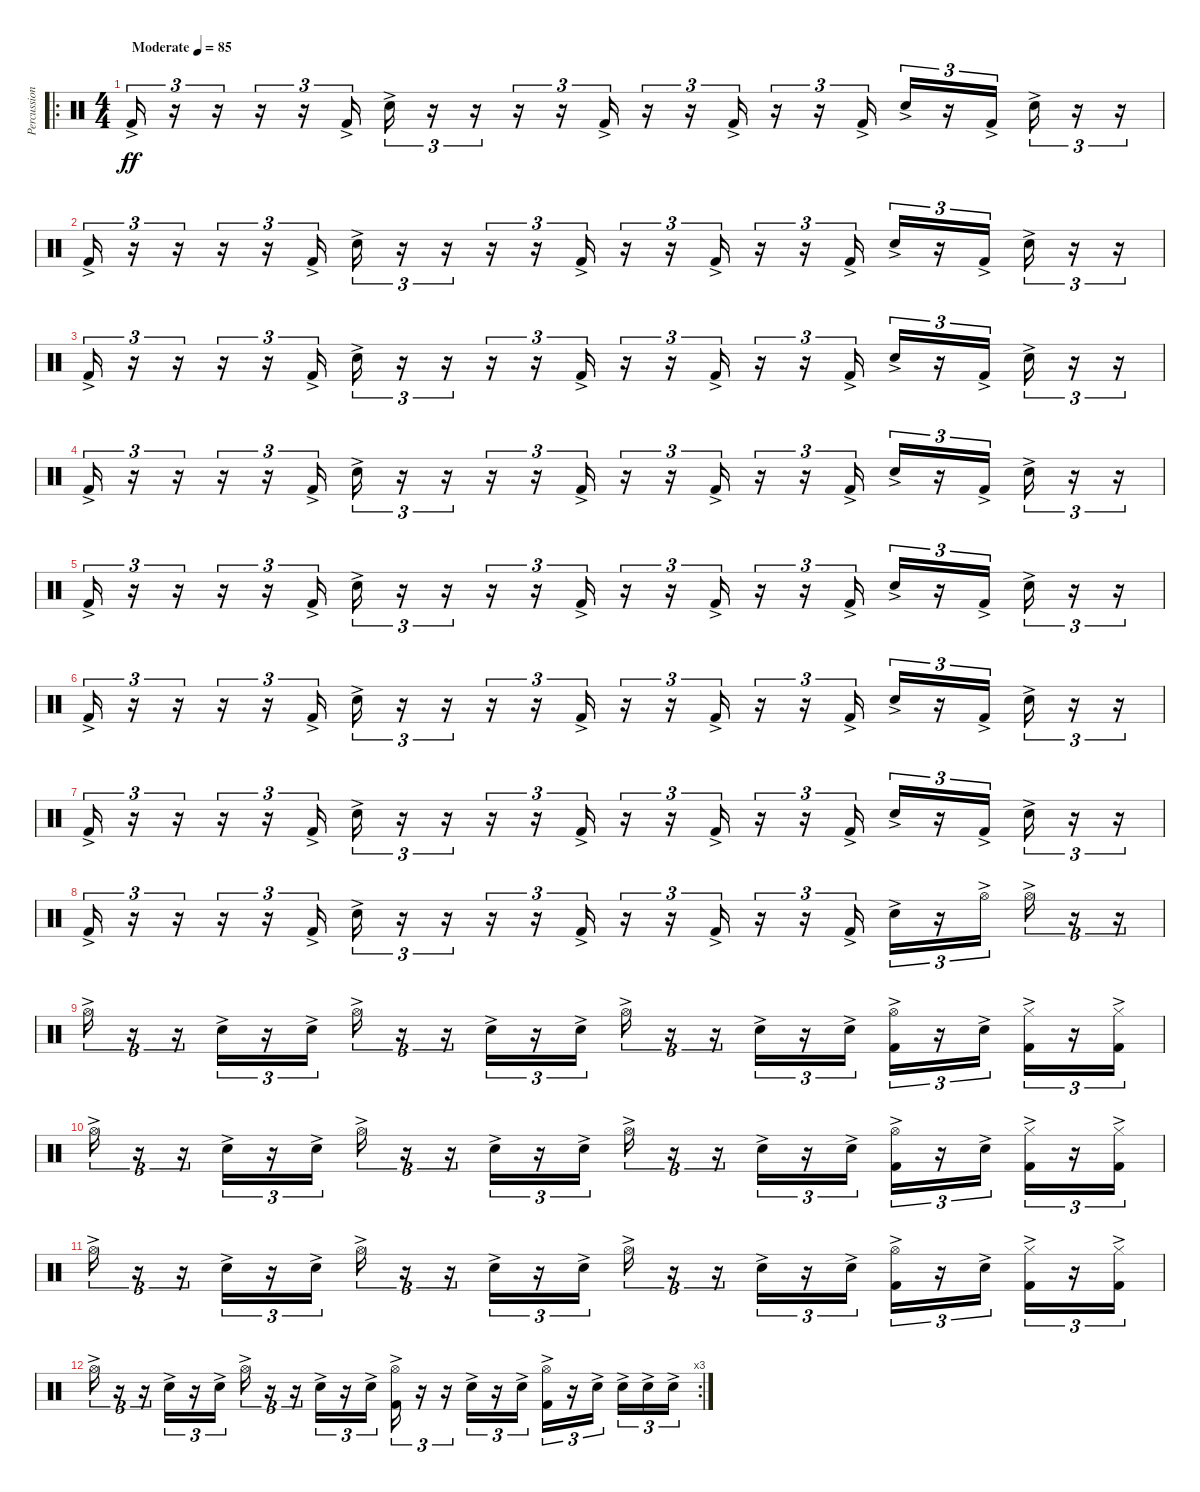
\track ("Percussion" "Percussion") {instrument percussion}
\staff {score}
\articulation defaults
\ro
\ts (4 4)
\tempo (85 "Moderate")
\clef neutral
\ks c "Kick (hit) 2"{ac}.16{tu (3 2) dy ff}
r.16{tu (3 2)} r.16{tu (3 2)} r.16{tu (3 2)} r.16{tu (3 2)} "Kick (hit) 2"{ac}.16{tu (3 2)} "Snare (hit) 2"{ac}.16{tu (3 2)} r.16{tu (3 2)} r.16{tu (3 2)} r.16{tu (3 2)} r.16{tu (3 2)} "Kick (hit) 2"{ac}.16{tu (3 2)} r.16{tu (3 2)} r.16{tu (3 2)} "Kick (hit) 2"{ac}.16{tu (3 2)} r.16{tu (3 2)} r.16{tu (3 2)} "Kick (hit) 2"{ac}.16{tu (3 2)} "Snare (hit) 2"{ac}.16{tu (3 2)} r.16{tu (3 2)} "Kick (hit) 2"{ac}.16{tu (3 2)} "Snare (hit) 2"{ac}.16{tu (3 2)} r.16{tu (3 2)} r.16{tu (3 2)} |
"Kick (hit) 2"{ac}.16{tu (3 2)} r.16{tu (3 2)} r.16{tu (3 2)} r.16{tu (3 2)} r.16{tu (3 2)} "Kick (hit) 2"{ac}.16{tu (3 2)} "Snare (hit) 2"{ac}.16{tu (3 2)} r.16{tu (3 2)} r.16{tu (3 2)} r.16{tu (3 2)} r.16{tu (3 2)} "Kick (hit) 2"{ac}.16{tu (3 2)} r.16{tu (3 2)} r.16{tu (3 2)} "Kick (hit) 2"{ac}.16{tu (3 2)} r.16{tu (3 2)} r.16{tu (3 2)} "Kick (hit) 2"{ac}.16{tu (3 2)} "Snare (hit) 2"{ac}.16{tu (3 2)} r.16{tu (3 2)} "Kick (hit) 2"{ac}.16{tu (3 2)} "Snare (hit) 2"{ac}.16{tu (3 2)} r.16{tu (3 2)} r.16{tu (3 2)} |
"Kick (hit) 2"{ac}.16{tu (3 2)} r.16{tu (3 2)} r.16{tu (3 2)} r.16{tu (3 2)} r.16{tu (3 2)} "Kick (hit) 2"{ac}.16{tu (3 2)} "Snare (hit) 2"{ac}.16{tu (3 2)} r.16{tu (3 2)} r.16{tu (3 2)} r.16{tu (3 2)} r.16{tu (3 2)} "Kick (hit) 2"{ac}.16{tu (3 2)} r.16{tu (3 2)} r.16{tu (3 2)} "Kick (hit) 2"{ac}.16{tu (3 2)} r.16{tu (3 2)} r.16{tu (3 2)} "Kick (hit) 2"{ac}.16{tu (3 2)} "Snare (hit) 2"{ac}.16{tu (3 2)} r.16{tu (3 2)} "Kick (hit) 2"{ac}.16{tu (3 2)} "Snare (hit) 2"{ac}.16{tu (3 2)} r.16{tu (3 2)} r.16{tu (3 2)} |
"Kick (hit) 2"{ac}.16{tu (3 2)} r.16{tu (3 2)} r.16{tu (3 2)} r.16{tu (3 2)} r.16{tu (3 2)} "Kick (hit) 2"{ac}.16{tu (3 2)} "Snare (hit) 2"{ac}.16{tu (3 2)} r.16{tu (3 2)} r.16{tu (3 2)} r.16{tu (3 2)} r.16{tu (3 2)} "Kick (hit) 2"{ac}.16{tu (3 2)} r.16{tu (3 2)} r.16{tu (3 2)} "Kick (hit) 2"{ac}.16{tu (3 2)} r.16{tu (3 2)} r.16{tu (3 2)} "Kick (hit) 2"{ac}.16{tu (3 2)} "Snare (hit) 2"{ac}.16{tu (3 2)} r.16{tu (3 2)} "Kick (hit) 2"{ac}.16{tu (3 2)} "Snare (hit) 2"{ac}.16{tu (3 2)} r.16{tu (3 2)} r.16{tu (3 2)} |
"Kick (hit) 2"{ac}.16{tu (3 2)} r.16{tu (3 2)} r.16{tu (3 2)} r.16{tu (3 2)} r.16{tu (3 2)} "Kick (hit) 2"{ac}.16{tu (3 2)} "Snare (hit) 2"{ac}.16{tu (3 2)} r.16{tu (3 2)} r.16{tu (3 2)} r.16{tu (3 2)} r.16{tu (3 2)} "Kick (hit) 2"{ac}.16{tu (3 2)} r.16{tu (3 2)} r.16{tu (3 2)} "Kick (hit) 2"{ac}.16{tu (3 2)} r.16{tu (3 2)} r.16{tu (3 2)} "Kick (hit) 2"{ac}.16{tu (3 2)} "Snare (hit) 2"{ac}.16{tu (3 2)} r.16{tu (3 2)} "Kick (hit) 2"{ac}.16{tu (3 2)} "Snare (hit) 2"{ac}.16{tu (3 2)} r.16{tu (3 2)} r.16{tu (3 2)} |
"Kick (hit) 2"{ac}.16{tu (3 2)} r.16{tu (3 2)} r.16{tu (3 2)} r.16{tu (3 2)} r.16{tu (3 2)} "Kick (hit) 2"{ac}.16{tu (3 2)} "Snare (hit) 2"{ac}.16{tu (3 2)} r.16{tu (3 2)} r.16{tu (3 2)} r.16{tu (3 2)} r.16{tu (3 2)} "Kick (hit) 2"{ac}.16{tu (3 2)} r.16{tu (3 2)} r.16{tu (3 2)} "Kick (hit) 2"{ac}.16{tu (3 2)} r.16{tu (3 2)} r.16{tu (3 2)} "Kick (hit) 2"{ac}.16{tu (3 2)} "Snare (hit) 2"{ac}.16{tu (3 2)} r.16{tu (3 2)} "Kick (hit) 2"{ac}.16{tu (3 2)} "Snare (hit) 2"{ac}.16{tu (3 2)} r.16{tu (3 2)} r.16{tu (3 2)} |
"Kick (hit) 2"{ac}.16{tu (3 2)} r.16{tu (3 2)} r.16{tu (3 2)} r.16{tu (3 2)} r.16{tu (3 2)} "Kick (hit) 2"{ac}.16{tu (3 2)} "Snare (hit) 2"{ac}.16{tu (3 2)} r.16{tu (3 2)} r.16{tu (3 2)} r.16{tu (3 2)} r.16{tu (3 2)} "Kick (hit) 2"{ac}.16{tu (3 2)} r.16{tu (3 2)} r.16{tu (3 2)} "Kick (hit) 2"{ac}.16{tu (3 2)} r.16{tu (3 2)} r.16{tu (3 2)} "Kick (hit) 2"{ac}.16{tu (3 2)} "Snare (hit) 2"{ac}.16{tu (3 2)} r.16{tu (3 2)} "Kick (hit) 2"{ac}.16{tu (3 2)} "Snare (hit) 2"{ac}.16{tu (3 2)} r.16{tu (3 2)} r.16{tu (3 2)} |
"Kick (hit) 2"{ac}.16{tu (3 2)} r.16{tu (3 2)} r.16{tu (3 2)} r.16{tu (3 2)} r.16{tu (3 2)} "Kick (hit) 2"{ac}.16{tu (3 2)} "Snare (hit) 2"{ac}.16{tu (3 2)} r.16{tu (3 2)} r.16{tu (3 2)} r.16{tu (3 2)} r.16{tu (3 2)} "Kick (hit) 2"{ac}.16{tu (3 2)} r.16{tu (3 2)} r.16{tu (3 2)} "Kick (hit) 2"{ac}.16{tu (3 2)} r.16{tu (3 2)} r.16{tu (3 2)} "Kick (hit) 2"{ac}.16{tu (3 2)} "Snare (hit) 2"{ac}.16{tu (3 2)} r.16{tu (3 2)} "Hi-Hat (open)"{ac}.16{tu (3 2)} "Hi-Hat (open)"{ac}.16{tu (3 2)} r.16{tu (3 2)} r.16{tu (3 2)} |
"Hi-Hat (open)"{ac}.16{tu (3 2)} r.16{tu (3 2)} r.16{tu (3 2)} "Snare (hit) 2"{ac}.16{tu (3 2)} r.16{tu (3 2)} "Snare (hit) 2"{ac}.16{tu (3 2)} "Hi-Hat (open)"{ac}.16{tu (3 2)} r.16{tu (3 2)} r.16{tu (3 2)} "Snare (hit) 2"{ac}.16{tu (3 2)} r.16{tu (3 2)} "Snare (hit) 2"{ac}.16{tu (3 2)} "Hi-Hat (open)"{ac}.16{tu (3 2)} r.16{tu (3 2)} r.16{tu (3 2)} "Snare (hit) 2"{ac}.16{tu (3 2)} r.16{tu (3 2)} "Snare (hit) 2"{ac}.16{tu (3 2)} ("Hi-Hat (open)"{ac} "Kick (hit) 2"{ac}).16{tu (3 2)} r.16{tu (3 2)} "Snare (hit) 2"{ac}.16{tu (3 2)} ("Hi-Hat (closed)"{ac} "Kick (hit) 2"{ac}).16{tu (3 2)} r.16{tu (3 2)} ("Hi-Hat (closed)"{ac} "Kick (hit) 2"{ac}).16{tu (3 2)} |
"Hi-Hat (open)"{ac}.16{tu (3 2)} r.16{tu (3 2)} r.16{tu (3 2)} "Snare (hit) 2"{ac}.16{tu (3 2)} r.16{tu (3 2)} "Snare (hit) 2"{ac}.16{tu (3 2)} "Hi-Hat (open)"{ac}.16{tu (3 2)} r.16{tu (3 2)} r.16{tu (3 2)} "Snare (hit) 2"{ac}.16{tu (3 2)} r.16{tu (3 2)} "Snare (hit) 2"{ac}.16{tu (3 2)} "Hi-Hat (open)"{ac}.16{tu (3 2)} r.16{tu (3 2)} r.16{tu (3 2)} "Snare (hit) 2"{ac}.16{tu (3 2)} r.16{tu (3 2)} "Snare (hit) 2"{ac}.16{tu (3 2)} ("Hi-Hat (open)"{ac} "Kick (hit) 2"{ac}).16{tu (3 2)} r.16{tu (3 2)} "Snare (hit) 2"{ac}.16{tu (3 2)} ("Hi-Hat (closed)"{ac} "Kick (hit) 2"{ac}).16{tu (3 2)} r.16{tu (3 2)} ("Hi-Hat (closed)"{ac} "Kick (hit) 2"{ac}).16{tu (3 2)} |
"Hi-Hat (open)"{ac}.16{tu (3 2)} r.16{tu (3 2)} r.16{tu (3 2)} "Snare (hit) 2"{ac}.16{tu (3 2)} r.16{tu (3 2)} "Snare (hit) 2"{ac}.16{tu (3 2)} "Hi-Hat (open)"{ac}.16{tu (3 2)} r.16{tu (3 2)} r.16{tu (3 2)} "Snare (hit) 2"{ac}.16{tu (3 2)} r.16{tu (3 2)} "Snare (hit) 2"{ac}.16{tu (3 2)} "Hi-Hat (open)"{ac}.16{tu (3 2)} r.16{tu (3 2)} r.16{tu (3 2)} "Snare (hit) 2"{ac}.16{tu (3 2)} r.16{tu (3 2)} "Snare (hit) 2"{ac}.16{tu (3 2)} ("Hi-Hat (open)"{ac} "Kick (hit) 2"{ac}).16{tu (3 2)} r.16{tu (3 2)} "Snare (hit) 2"{ac}.16{tu (3 2)} ("Hi-Hat (closed)"{ac} "Kick (hit) 2"{ac}).16{tu (3 2)} r.16{tu (3 2)} ("Hi-Hat (closed)"{ac} "Kick (hit) 2"{ac}).16{tu (3 2)} |
\rc 3 "Hi-Hat (open)"{ac}.16{tu (3 2)}
r.16{tu (3 2)} r.16{tu (3 2)} "Snare (hit) 2"{ac}.16{tu (3 2)} r.16{tu (3 2)} "Snare (hit) 2"{ac}.16{tu (3 2)} "Hi-Hat (open)"{ac}.16{tu (3 2)} r.16{tu (3 2)} r.16{tu (3 2)} "Snare (hit) 2"{ac}.16{tu (3 2)} r.16{tu (3 2)} "Snare (hit) 2"{ac}.16{tu (3 2)} ("Hi-Hat (open)"{ac} "Kick (hit) 2"{ac}).16{tu (3 2)} r.16{tu (3 2)} r.16{tu (3 2)} "Snare (hit) 2"{ac}.16{tu (3 2)} r.16{tu (3 2)} "Snare (hit) 2"{ac}.16{tu (3 2)} ("Hi-Hat (open)"{ac} "Kick (hit) 2"{ac}).16{tu (3 2)} r.16{tu (3 2)} "Snare (hit) 2"{ac}.16{tu (3 2) beam splitsecondary} "Snare (hit) 2"{ac}.16{tu (3 2)} "Snare (hit) 2"{ac}.16{tu (3 2)} "Snare (hit) 2"{ac}.16{tu (3 2)}
